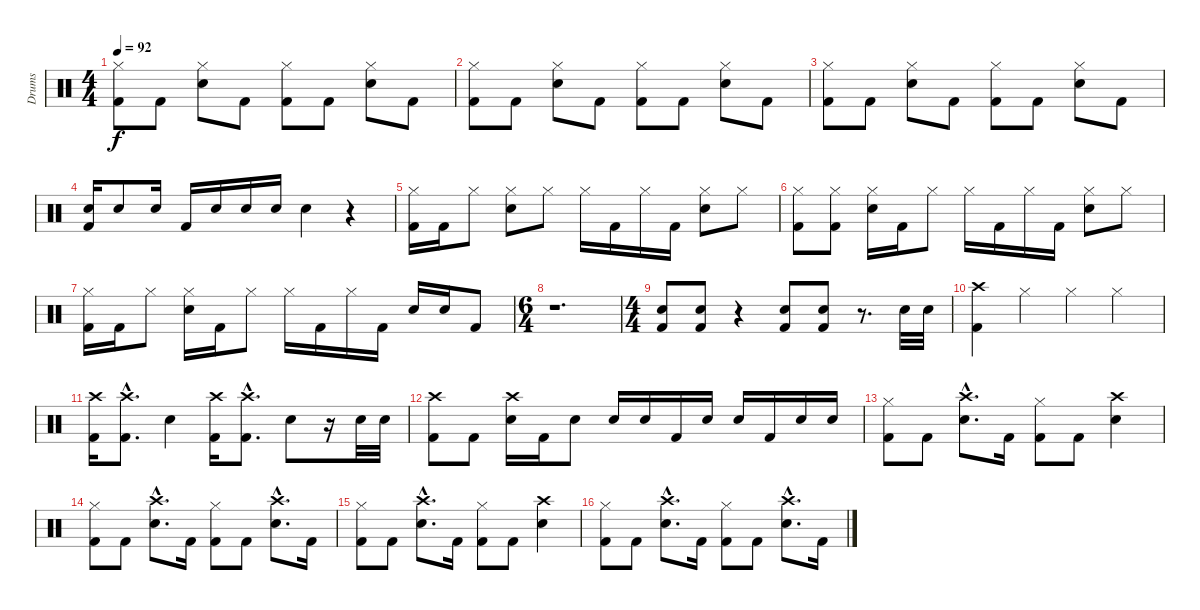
\track ("Drums" "Drums") {instrument percussion}
\staff {score}
\articulation defaults
\ts (4 4)
\tempo 92
\clef neutral
\ks c
("Hi-Hat (closed)" "Kick (hit) 2").8{dy f} "Kick (hit) 2".8 ("Hi-Hat (closed)" "Electric Snare (hit)").8 "Kick (hit) 2".8 ("Hi-Hat (closed)" "Kick (hit) 2").8 "Kick (hit) 2".8 ("Hi-Hat (closed)" "Electric Snare (hit)").8 "Kick (hit) 2".8 |
("Hi-Hat (closed)" "Kick (hit) 2").8 "Kick (hit) 2".8 ("Hi-Hat (closed)" "Electric Snare (hit)").8 "Kick (hit) 2".8 ("Hi-Hat (closed)" "Kick (hit) 2").8 "Kick (hit) 2".8 ("Hi-Hat (closed)" "Electric Snare (hit)").8 "Kick (hit) 2".8 |
("Hi-Hat (closed)" "Kick (hit) 2").8 "Kick (hit) 2".8 ("Hi-Hat (closed)" "Electric Snare (hit)").8 "Kick (hit) 2".8 ("Hi-Hat (closed)" "Kick (hit) 2").8 "Kick (hit) 2".8 ("Hi-Hat (closed)" "Electric Snare (hit)").8 "Kick (hit) 2".8 |
("Electric Snare (hit)" "Kick (hit) 2").16 "Electric Snare (hit)".8 "Electric Snare (hit)".16 "Kick (hit) 2".16 "Electric Snare (hit)".16 "Electric Snare (hit)".16 "Electric Snare (hit)".16 "Electric Snare (hit)".4 r.4 |
("Hi-Hat (closed)" "Kick (hit) 2").16 "Kick (hit) 2".16 "Hi-Hat (closed)".8 ("Hi-Hat (closed)" "Electric Snare (hit)").8 "Hi-Hat (closed)".8 "Hi-Hat (closed)".16 "Kick (hit) 2".16 "Hi-Hat (closed)".16 "Kick (hit) 2".16 ("Hi-Hat (closed)" "Electric Snare (hit)").8 "Hi-Hat (closed)".8 |
("Hi-Hat (closed)" "Kick (hit) 2").8 ("Hi-Hat (closed)" "Kick (hit) 2").8 ("Hi-Hat (closed)" "Electric Snare (hit)").16 "Kick (hit) 2".16 "Hi-Hat (closed)".8 "Hi-Hat (closed)".16 "Kick (hit) 2".16 "Hi-Hat (closed)".16 "Kick (hit) 2".16 ("Hi-Hat (closed)" "Electric Snare (hit)").8 "Hi-Hat (closed)".8 |
("Hi-Hat (closed)" "Kick (hit) 2").16 "Kick (hit) 2".16 "Hi-Hat (closed)".8 ("Hi-Hat (closed)" "Electric Snare (hit)").16 "Kick (hit) 2".16 "Hi-Hat (closed)".8 "Hi-Hat (closed)".16 "Kick (hit) 2".16 "Hi-Hat (closed)".16 "Kick (hit) 2".16 "Electric Snare (hit)".16 "Electric Snare (hit)".16 "Kick (hit) 2".8 |
\ts (6 4)
r.1{d} |
\ts (4 4)
("Electric Snare (hit)" "Kick (hit) 2").8 ("Electric Snare (hit)" "Kick (hit) 2").8 r.4 ("Electric Snare (hit)" "Kick (hit) 2").8 ("Electric Snare (hit)" "Kick (hit) 2").8 r.8{d} "Electric Snare (hit)".32 "Electric Snare (hit)".32 |
("Crash high (hit)" "Kick (hit) 2").4 "Hi-Hat (closed)".4 "Hi-Hat (closed)".4 "Hi-Hat (closed)".4 |
("Crash high (hit)" "Kick (hit) 2").16 ("Crash high (hit)"{hac} "Kick (hit) 2"{hac}).8{d} "Electric Snare (hit)".4 ("Crash high (hit)" "Kick (hit) 2").16 ("Crash high (hit)"{hac} "Kick (hit) 2"{hac}).8{d} "Electric Snare (hit)".8 r.16 "Electric Snare (hit)".32 "Electric Snare (hit)".32 |
("Crash high (hit)" "Kick (hit) 2").8 "Kick (hit) 2".8 ("Crash high (hit)" "Electric Snare (hit)").16 "Kick (hit) 2".16 "Electric Snare (hit)".8 "Electric Snare (hit)".16 "Electric Snare (hit)".16 "Kick (hit) 2".16 "Electric Snare (hit)".16 "Electric Snare (hit)".16 "Kick (hit) 2".16 "Electric Snare (hit)".16 "Electric Snare (hit)".16 |
("Hi-Hat (closed)" "Kick (hit) 2").8 "Kick (hit) 2".8 ("Crash high (hit)"{hac} "Electric Snare (hit)"{hac}).8{d} "Kick (hit) 2".16 ("Hi-Hat (closed)" "Kick (hit) 2").8 "Kick (hit) 2".8 ("Crash high (hit)" "Electric Snare (hit)").4 |
("Hi-Hat (closed)" "Kick (hit) 2").8 "Kick (hit) 2".8 ("Crash high (hit)"{hac} "Electric Snare (hit)"{hac}).8{d} "Kick (hit) 2".16 ("Hi-Hat (closed)" "Kick (hit) 2").8 "Kick (hit) 2".8 ("Crash high (hit)"{hac} "Electric Snare (hit)"{hac}).8{d} "Kick (hit) 2".16 |
("Hi-Hat (closed)" "Kick (hit) 2").8 "Kick (hit) 2".8 ("Crash high (hit)"{hac} "Electric Snare (hit)"{hac}).8{d} "Kick (hit) 2".16 ("Hi-Hat (closed)" "Kick (hit) 2").8 "Kick (hit) 2".8 ("Crash high (hit)" "Electric Snare (hit)").4 |
("Hi-Hat (closed)" "Kick (hit) 2").8 "Kick (hit) 2".8 ("Crash high (hit)"{hac} "Electric Snare (hit)"{hac}).8{d} "Kick (hit) 2".16 ("Hi-Hat (closed)" "Kick (hit) 2").8 "Kick (hit) 2".8 ("Crash high (hit)"{hac} "Electric Snare (hit)"{hac}).8{d} "Kick (hit) 2".16
